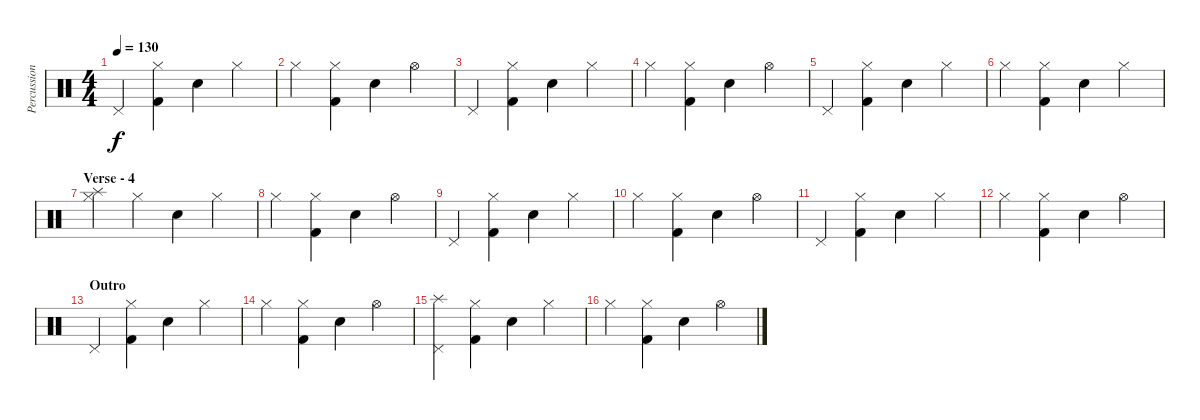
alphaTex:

\track ("Percussion" "Percussion") {instrument percussion}
\staff {score}
\articulation defaults
\ts (4 4)
\tempo 130
\clef neutral
\ks c "Pedal Hi-Hat (hit)".4{dy f}
("Hi-Hat (closed)" "Kick (hit) 2").4 "Snare (hit) 2".4 "Hi-Hat (closed)".4 |
"Hi-Hat (closed)".4 ("Hi-Hat (closed)" "Kick (hit) 2").4 "Snare (hit) 2".4 "Hi-Hat (open)".4 |
"Pedal Hi-Hat (hit)".4 ("Hi-Hat (closed)" "Kick (hit) 2").4 "Snare (hit) 2".4 "Hi-Hat (closed)".4 |
"Hi-Hat (closed)".4 ("Hi-Hat (closed)" "Kick (hit) 2").4 "Snare (hit) 2".4 "Hi-Hat (open)".4 |
"Pedal Hi-Hat (hit)".4 ("Hi-Hat (closed)" "Kick (hit) 2").4 "Snare (hit) 2".4 "Hi-Hat (closed)".4 |
"Hi-Hat (closed)".4 ("Hi-Hat (closed)" "Kick (hit) 2").4 "Snare (hit) 2".4 "Hi-Hat (closed)".4 |
\section ("" "Verse - 4")
("Splash (hit)" "Hi-Hat (closed)").4 "Hi-Hat (closed)".4 "Snare (hit) 2".4 "Hi-Hat (closed)".4 |
"Hi-Hat (closed)".4 ("Hi-Hat (closed)" "Kick (hit) 2").4 "Snare (hit) 2".4 "Hi-Hat (open)".4 |
"Pedal Hi-Hat (hit)".4 ("Hi-Hat (closed)" "Kick (hit) 2").4 "Snare (hit) 2".4 "Hi-Hat (closed)".4 |
"Hi-Hat (closed)".4 ("Hi-Hat (closed)" "Kick (hit) 2").4 "Snare (hit) 2".4 "Hi-Hat (open)".4 |
"Pedal Hi-Hat (hit)".4 ("Hi-Hat (closed)" "Kick (hit) 2").4 "Snare (hit) 2".4 "Hi-Hat (closed)".4 |
"Hi-Hat (closed)".4 ("Hi-Hat (closed)" "Kick (hit) 2").4 "Snare (hit) 2".4 "Hi-Hat (open)".4 |
\section ("" "Outro")
"Pedal Hi-Hat (hit)".4 ("Hi-Hat (closed)" "Kick (hit) 2").4 "Snare (hit) 2".4 "Hi-Hat (closed)".4 |
"Hi-Hat (closed)".4 ("Hi-Hat (closed)" "Kick (hit) 2").4 "Snare (hit) 2".4 "Hi-Hat (open)".4 |
("Splash (hit)" "Pedal Hi-Hat (hit)").4 ("Hi-Hat (closed)" "Kick (hit) 2").4 "Snare (hit) 2".4 "Hi-Hat (closed)".4 |
"Hi-Hat (closed)".4 ("Hi-Hat (closed)" "Kick (hit) 2").4 "Snare (hit) 2".4 "Hi-Hat (open)".4
